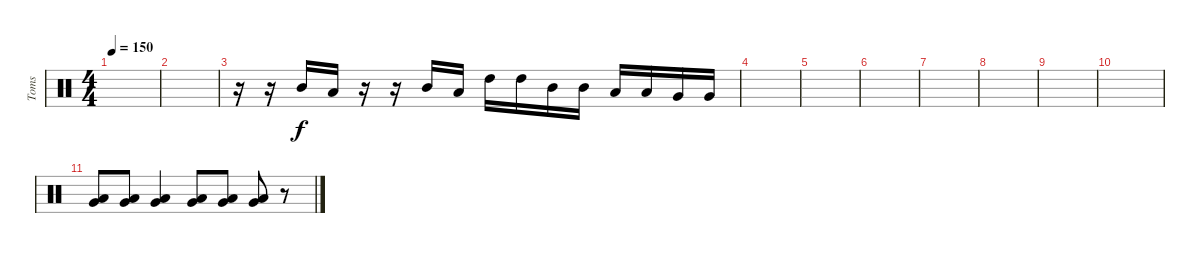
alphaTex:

\track ("Toms" "Toms") {instrument percussion}
\staff {score}
\articulation defaults
\ts (4 4)
\tempo 150
\clef neutral
\ks c
|
|
r.16 r.16 "Mid Tom (hit)".16 "Low Tom (hit)".16 r.16 r.16 "Mid Tom (hit)".16 "Low Tom (hit)".16 "High Tom (hit)".16 "High Tom (hit)".16 "Mid Tom (hit)".16 "Mid Tom (hit)".16 "Low Tom (hit)".16 "Low Tom (hit)".16 "Very Low Tom (hit)".16 "Very Low Tom (hit)".16 |
|
|
|
|
|
|
|
("Low Tom (hit)" "Very Low Tom (hit)").8 ("Low Tom (hit)" "Very Low Tom (hit)").8 ("Low Tom (hit)" "Very Low Tom (hit)").4 ("Very Low Tom (hit)" "Low Floor Tom (hit)").8 ("Very Low Tom (hit)" "Low Floor Tom (hit)").8 ("Very Low Tom (hit)" "Low Floor Tom (hit)").8 r.8
